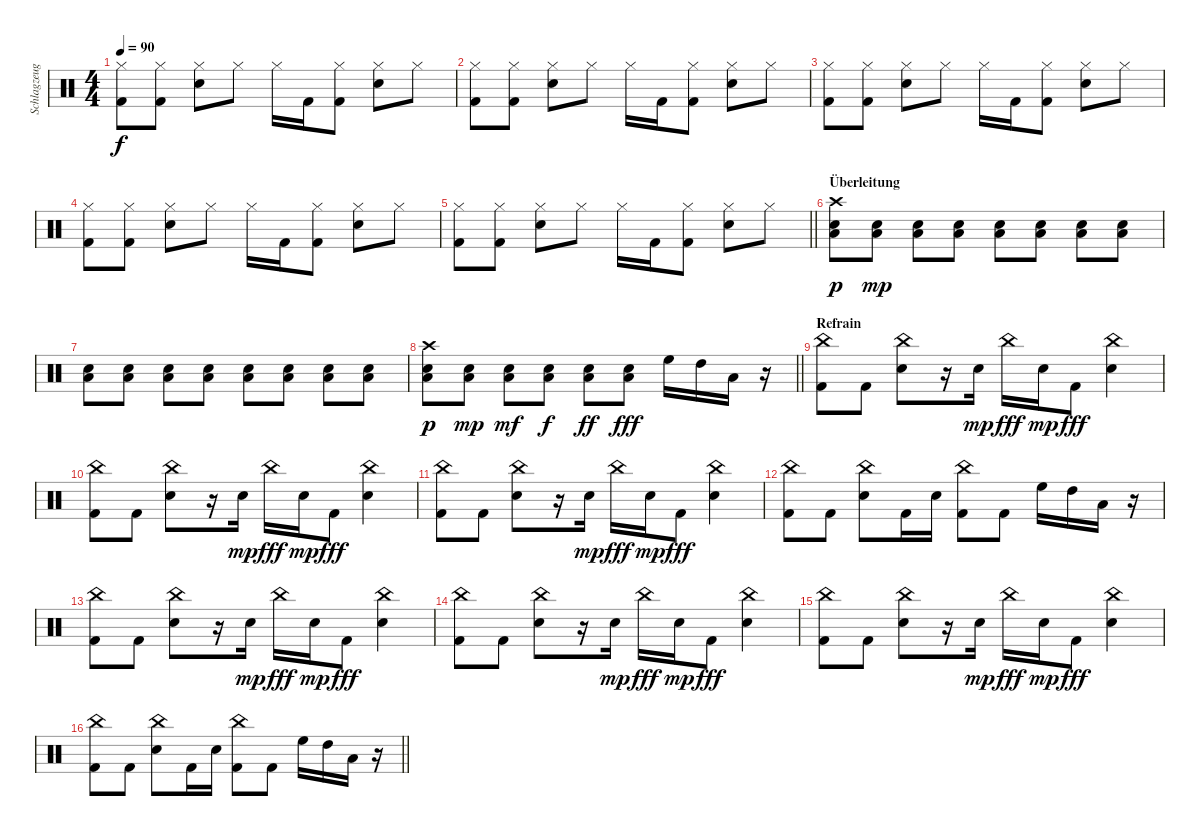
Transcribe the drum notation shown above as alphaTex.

\track ("Schlagzeug" "Schlagzeug") {instrument percussion}
\staff {score}
\articulation defaults
\ts (4 4)
\tempo 90
\clef neutral
\ks c
("Hi-Hat (closed)" "Kick (hit) 2").8{dy f} ("Hi-Hat (closed)" "Kick (hit) 2").8 ("Hi-Hat (closed)" "Snare (hit) 2").8 "Hi-Hat (closed)".8 "Hi-Hat (closed)".16 "Kick (hit) 2".16 ("Hi-Hat (closed)" "Kick (hit) 2").8 ("Hi-Hat (closed)" "Snare (hit) 2").8 "Hi-Hat (closed)".8 |
("Hi-Hat (closed)" "Kick (hit) 2").8 ("Hi-Hat (closed)" "Kick (hit) 2").8 ("Hi-Hat (closed)" "Snare (hit) 2").8 "Hi-Hat (closed)".8 "Hi-Hat (closed)".16 "Kick (hit) 2".16 ("Hi-Hat (closed)" "Kick (hit) 2").8 ("Hi-Hat (closed)" "Snare (hit) 2").8 "Hi-Hat (closed)".8 |
("Hi-Hat (closed)" "Kick (hit) 2").8 ("Hi-Hat (closed)" "Kick (hit) 2").8 ("Hi-Hat (closed)" "Snare (hit) 2").8 "Hi-Hat (closed)".8 "Hi-Hat (closed)".16 "Kick (hit) 2".16 ("Hi-Hat (closed)" "Kick (hit) 2").8 ("Hi-Hat (closed)" "Snare (hit) 2").8 "Hi-Hat (closed)".8 |
("Hi-Hat (closed)" "Kick (hit) 2").8 ("Hi-Hat (closed)" "Kick (hit) 2").8 ("Hi-Hat (closed)" "Snare (hit) 2").8 "Hi-Hat (closed)".8 "Hi-Hat (closed)".16 "Kick (hit) 2".16 ("Hi-Hat (closed)" "Kick (hit) 2").8 ("Hi-Hat (closed)" "Snare (hit) 2").8 "Hi-Hat (closed)".8 |
\barLineRight lightlight
("Hi-Hat (closed)" "Kick (hit) 2").8 ("Hi-Hat (closed)" "Kick (hit) 2").8 ("Hi-Hat (closed)" "Snare (hit) 2").8 "Hi-Hat (closed)".8 "Hi-Hat (closed)".16 "Kick (hit) 2".16 ("Hi-Hat (closed)" "Kick (hit) 2").8 ("Hi-Hat (closed)" "Snare (hit) 2").8 "Hi-Hat (closed)".8 |
\section ("" "Überleitung")
("Crash high (hit)" "Low Tom (hit)" "Snare (hit) 2").8{dy p} ("Low Tom (hit)" "Snare (hit) 2").8{dy mp} ("Low Tom (hit)" "Snare (hit) 2").8 ("Low Tom (hit)" "Snare (hit) 2").8 ("Low Tom (hit)" "Snare (hit) 2").8 ("Low Tom (hit)" "Snare (hit) 2").8 ("Low Tom (hit)" "Snare (hit) 2").8 ("Low Tom (hit)" "Snare (hit) 2").8 |
("Low Tom (hit)" "Snare (hit) 2").8 ("Low Tom (hit)" "Snare (hit) 2").8 ("Low Tom (hit)" "Snare (hit) 2").8 ("Low Tom (hit)" "Snare (hit) 2").8 ("Low Tom (hit)" "Snare (hit) 2").8 ("Low Tom (hit)" "Snare (hit) 2").8 ("Low Tom (hit)" "Snare (hit) 2").8 ("Low Tom (hit)" "Snare (hit) 2").8 |
\barLineRight lightlight
("Crash high (hit)" "Low Tom (hit)" "Snare (hit) 2").8{dy p} ("Low Tom (hit)" "Snare (hit) 2").8{dy mp} ("Low Tom (hit)" "Snare (hit) 2").8{dy mf} ("Low Tom (hit)" "Snare (hit) 2").8{dy f} ("Low Tom (hit)" "Snare (hit) 2").8{dy ff} ("Low Tom (hit)" "Snare (hit) 2").8{dy fff} "High Floor Tom (hit)".16 "High Tom (hit)".16 "Low Tom (hit)".16 r.16 |
\section ("" "Refrain")
("China (hit)" "Kick (hit) 2").8 "Kick (hit) 2".8 ("China (hit)" "Snare (hit) 2").8 r.16 "Snare (hit) 2".16{dy mp} "China (hit)".16{dy fff} "Snare (hit) 2".16{dy mp} "Kick (hit) 2".8{dy fff} ("China (hit)" "Snare (hit) 2").4 |
("China (hit)" "Kick (hit) 2").8 "Kick (hit) 2".8 ("China (hit)" "Snare (hit) 2").8 r.16 "Snare (hit) 2".16{dy mp} "China (hit)".16{dy fff} "Snare (hit) 2".16{dy mp} "Kick (hit) 2".8{dy fff} ("China (hit)" "Snare (hit) 2").4 |
("China (hit)" "Kick (hit) 2").8 "Kick (hit) 2".8 ("China (hit)" "Snare (hit) 2").8 r.16 "Snare (hit) 2".16{dy mp} "China (hit)".16{dy fff} "Snare (hit) 2".16{dy mp} "Kick (hit) 2".8{dy fff} ("China (hit)" "Snare (hit) 2").4 |
("China (hit)" "Kick (hit) 2").8 "Kick (hit) 2".8 ("China (hit)" "Snare (hit) 2").8 "Kick (hit) 2".16 "Snare (hit) 2".16 ("China (hit)" "Kick (hit) 2").8 "Kick (hit) 2".8 "High Floor Tom (hit)".16 "High Tom (hit)".16 "Low Tom (hit)".16 r.16 |
("China (hit)" "Kick (hit) 2").8 "Kick (hit) 2".8 ("China (hit)" "Snare (hit) 2").8 r.16 "Snare (hit) 2".16{dy mp} "China (hit)".16{dy fff} "Snare (hit) 2".16{dy mp} "Kick (hit) 2".8{dy fff} ("China (hit)" "Snare (hit) 2").4 |
("China (hit)" "Kick (hit) 2").8 "Kick (hit) 2".8 ("China (hit)" "Snare (hit) 2").8 r.16 "Snare (hit) 2".16{dy mp} "China (hit)".16{dy fff} "Snare (hit) 2".16{dy mp} "Kick (hit) 2".8{dy fff} ("China (hit)" "Snare (hit) 2").4 |
("China (hit)" "Kick (hit) 2").8 "Kick (hit) 2".8 ("China (hit)" "Snare (hit) 2").8 r.16 "Snare (hit) 2".16{dy mp} "China (hit)".16{dy fff} "Snare (hit) 2".16{dy mp} "Kick (hit) 2".8{dy fff} ("China (hit)" "Snare (hit) 2").4 |
\barLineRight lightlight
("China (hit)" "Kick (hit) 2").8 "Kick (hit) 2".8 ("China (hit)" "Snare (hit) 2").8 "Kick (hit) 2".16 "Snare (hit) 2".16 ("China (hit)" "Kick (hit) 2").8 "Kick (hit) 2".8 "High Floor Tom (hit)".16 "High Tom (hit)".16 "Low Tom (hit)".16 r.16
